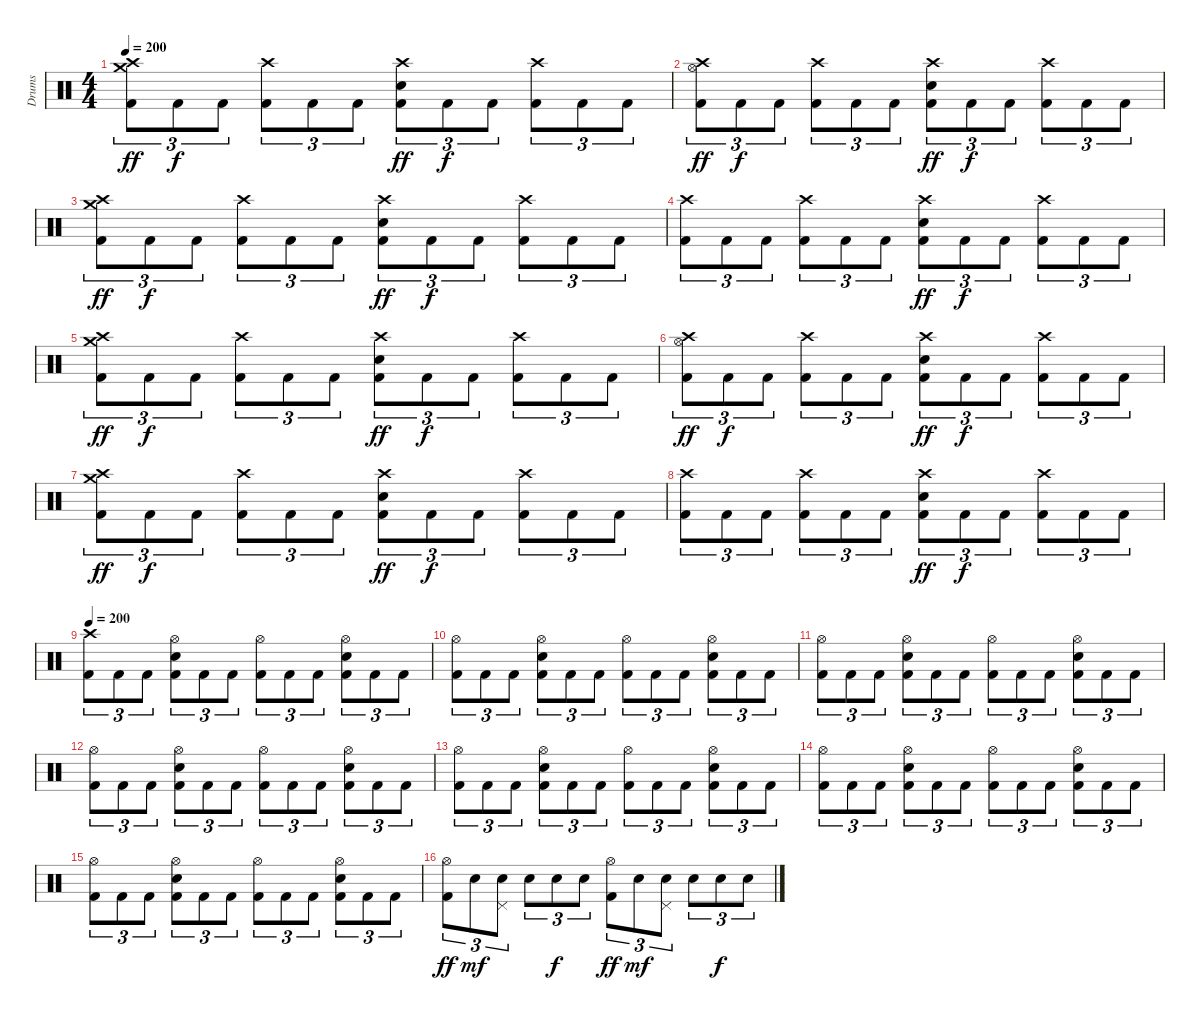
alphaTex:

\track ("Drums" "Drums") {instrument percussion}
\staff {score}
\articulation defaults
\ts (4 4)
\tempo 200
\clef neutral
\ks c
("Crash high (hit)" "Crash medium (hit)" "Kick (hit) 2").8{tu (3 2) dy ff} "Kick (hit) 2".8{tu (3 2) dy f} "Kick (hit) 2".8{tu (3 2)} ("Crash high (hit)" "Kick (hit) 2").8{tu (3 2)} "Kick (hit) 2".8{tu (3 2)} "Kick (hit) 2".8{tu (3 2)} ("Crash high (hit)" "Electric Snare (hit)" "Kick (hit) 2").8{tu (3 2) dy ff} "Kick (hit) 2".8{tu (3 2) dy f} "Kick (hit) 2".8{tu (3 2)} ("Crash high (hit)" "Kick (hit) 2").8{tu (3 2)} "Kick (hit) 2".8{tu (3 2)} "Kick (hit) 2".8{tu (3 2)} |
("Crash high (hit)" "Hi-Hat (open)" "Kick (hit) 2").8{tu (3 2) dy ff} "Kick (hit) 2".8{tu (3 2) dy f} "Kick (hit) 2".8{tu (3 2)} ("Crash high (hit)" "Kick (hit) 2").8{tu (3 2)} "Kick (hit) 2".8{tu (3 2)} "Kick (hit) 2".8{tu (3 2)} ("Crash high (hit)" "Electric Snare (hit)" "Kick (hit) 2").8{tu (3 2) dy ff} "Kick (hit) 2".8{tu (3 2) dy f} "Kick (hit) 2".8{tu (3 2)} ("Crash high (hit)" "Kick (hit) 2").8{tu (3 2)} "Kick (hit) 2".8{tu (3 2)} "Kick (hit) 2".8{tu (3 2)} |
("Crash high (hit)" "Crash medium (hit)" "Kick (hit) 2").8{tu (3 2) dy ff} "Kick (hit) 2".8{tu (3 2) dy f} "Kick (hit) 2".8{tu (3 2)} ("Crash high (hit)" "Kick (hit) 2").8{tu (3 2)} "Kick (hit) 2".8{tu (3 2)} "Kick (hit) 2".8{tu (3 2)} ("Crash high (hit)" "Electric Snare (hit)" "Kick (hit) 2").8{tu (3 2) dy ff} "Kick (hit) 2".8{tu (3 2) dy f} "Kick (hit) 2".8{tu (3 2)} ("Crash high (hit)" "Kick (hit) 2").8{tu (3 2)} "Kick (hit) 2".8{tu (3 2)} "Kick (hit) 2".8{tu (3 2)} |
("Crash high (hit)" "Kick (hit) 2").8{tu (3 2)} "Kick (hit) 2".8{tu (3 2)} "Kick (hit) 2".8{tu (3 2)} ("Crash high (hit)" "Kick (hit) 2").8{tu (3 2)} "Kick (hit) 2".8{tu (3 2)} "Kick (hit) 2".8{tu (3 2)} ("Crash high (hit)" "Electric Snare (hit)" "Kick (hit) 2").8{tu (3 2) dy ff} "Kick (hit) 2".8{tu (3 2) dy f} "Kick (hit) 2".8{tu (3 2)} ("Crash high (hit)" "Kick (hit) 2").8{tu (3 2)} "Kick (hit) 2".8{tu (3 2)} "Kick (hit) 2".8{tu (3 2)} |
("Crash high (hit)" "Crash medium (hit)" "Kick (hit) 2").8{tu (3 2) dy ff} "Kick (hit) 2".8{tu (3 2) dy f} "Kick (hit) 2".8{tu (3 2)} ("Crash high (hit)" "Kick (hit) 2").8{tu (3 2)} "Kick (hit) 2".8{tu (3 2)} "Kick (hit) 2".8{tu (3 2)} ("Crash high (hit)" "Electric Snare (hit)" "Kick (hit) 2").8{tu (3 2) dy ff} "Kick (hit) 2".8{tu (3 2) dy f} "Kick (hit) 2".8{tu (3 2)} ("Crash high (hit)" "Kick (hit) 2").8{tu (3 2)} "Kick (hit) 2".8{tu (3 2)} "Kick (hit) 2".8{tu (3 2)} |
("Crash high (hit)" "Hi-Hat (open)" "Kick (hit) 2").8{tu (3 2) dy ff} "Kick (hit) 2".8{tu (3 2) dy f} "Kick (hit) 2".8{tu (3 2)} ("Crash high (hit)" "Kick (hit) 2").8{tu (3 2)} "Kick (hit) 2".8{tu (3 2)} "Kick (hit) 2".8{tu (3 2)} ("Crash high (hit)" "Electric Snare (hit)" "Kick (hit) 2").8{tu (3 2) dy ff} "Kick (hit) 2".8{tu (3 2) dy f} "Kick (hit) 2".8{tu (3 2)} ("Crash high (hit)" "Kick (hit) 2").8{tu (3 2)} "Kick (hit) 2".8{tu (3 2)} "Kick (hit) 2".8{tu (3 2)} |
("Crash high (hit)" "Crash medium (hit)" "Kick (hit) 2").8{tu (3 2) dy ff} "Kick (hit) 2".8{tu (3 2) dy f} "Kick (hit) 2".8{tu (3 2)} ("Crash high (hit)" "Kick (hit) 2").8{tu (3 2)} "Kick (hit) 2".8{tu (3 2)} "Kick (hit) 2".8{tu (3 2)} ("Crash high (hit)" "Electric Snare (hit)" "Kick (hit) 2").8{tu (3 2) dy ff} "Kick (hit) 2".8{tu (3 2) dy f} "Kick (hit) 2".8{tu (3 2)} ("Crash high (hit)" "Kick (hit) 2").8{tu (3 2)} "Kick (hit) 2".8{tu (3 2)} "Kick (hit) 2".8{tu (3 2)} |
("Crash high (hit)" "Kick (hit) 2").8{tu (3 2)} "Kick (hit) 2".8{tu (3 2)} "Kick (hit) 2".8{tu (3 2)} ("Crash high (hit)" "Kick (hit) 2").8{tu (3 2)} "Kick (hit) 2".8{tu (3 2)} "Kick (hit) 2".8{tu (3 2)} ("Crash high (hit)" "Electric Snare (hit)" "Kick (hit) 2").8{tu (3 2) dy ff} "Kick (hit) 2".8{tu (3 2) dy f} "Kick (hit) 2".8{tu (3 2)} ("Crash high (hit)" "Kick (hit) 2").8{tu (3 2)} "Kick (hit) 2".8{tu (3 2)} "Kick (hit) 2".8{tu (3 2)} |
\tempo 200
("Crash high (hit)" "Kick (hit) 2").8{tu (3 2)} "Kick (hit) 2".8{tu (3 2)} "Kick (hit) 2".8{tu (3 2)} ("Hi-Hat (open)" "Electric Snare (hit)" "Kick (hit) 2").8{tu (3 2)} "Kick (hit) 2".8{tu (3 2)} "Kick (hit) 2".8{tu (3 2)} ("Hi-Hat (open)" "Kick (hit) 2").8{tu (3 2)} "Kick (hit) 2".8{tu (3 2)} "Kick (hit) 2".8{tu (3 2)} ("Hi-Hat (open)" "Electric Snare (hit)" "Kick (hit) 2").8{tu (3 2)} "Kick (hit) 2".8{tu (3 2)} "Kick (hit) 2".8{tu (3 2)} |
("Hi-Hat (open)" "Kick (hit) 2").8{tu (3 2)} "Kick (hit) 2".8{tu (3 2)} "Kick (hit) 2".8{tu (3 2)} ("Hi-Hat (open)" "Electric Snare (hit)" "Kick (hit) 2").8{tu (3 2)} "Kick (hit) 2".8{tu (3 2)} "Kick (hit) 2".8{tu (3 2)} ("Hi-Hat (open)" "Kick (hit) 2").8{tu (3 2)} "Kick (hit) 2".8{tu (3 2)} "Kick (hit) 2".8{tu (3 2)} ("Hi-Hat (open)" "Electric Snare (hit)" "Kick (hit) 2").8{tu (3 2)} "Kick (hit) 2".8{tu (3 2)} "Kick (hit) 2".8{tu (3 2)} |
("Hi-Hat (open)" "Kick (hit) 2").8{tu (3 2)} "Kick (hit) 2".8{tu (3 2)} "Kick (hit) 2".8{tu (3 2)} ("Hi-Hat (open)" "Electric Snare (hit)" "Kick (hit) 2").8{tu (3 2)} "Kick (hit) 2".8{tu (3 2)} "Kick (hit) 2".8{tu (3 2)} ("Hi-Hat (open)" "Kick (hit) 2").8{tu (3 2)} "Kick (hit) 2".8{tu (3 2)} "Kick (hit) 2".8{tu (3 2)} ("Hi-Hat (open)" "Electric Snare (hit)" "Kick (hit) 2").8{tu (3 2)} "Kick (hit) 2".8{tu (3 2)} "Kick (hit) 2".8{tu (3 2)} |
("Hi-Hat (open)" "Kick (hit) 2").8{tu (3 2)} "Kick (hit) 2".8{tu (3 2)} "Kick (hit) 2".8{tu (3 2)} ("Hi-Hat (open)" "Electric Snare (hit)" "Kick (hit) 2").8{tu (3 2)} "Kick (hit) 2".8{tu (3 2)} "Kick (hit) 2".8{tu (3 2)} ("Hi-Hat (open)" "Kick (hit) 2").8{tu (3 2)} "Kick (hit) 2".8{tu (3 2)} "Kick (hit) 2".8{tu (3 2)} ("Hi-Hat (open)" "Electric Snare (hit)" "Kick (hit) 2").8{tu (3 2)} "Kick (hit) 2".8{tu (3 2)} "Kick (hit) 2".8{tu (3 2)} |
("Hi-Hat (open)" "Kick (hit) 2").8{tu (3 2)} "Kick (hit) 2".8{tu (3 2)} "Kick (hit) 2".8{tu (3 2)} ("Hi-Hat (open)" "Electric Snare (hit)" "Kick (hit) 2").8{tu (3 2)} "Kick (hit) 2".8{tu (3 2)} "Kick (hit) 2".8{tu (3 2)} ("Hi-Hat (open)" "Kick (hit) 2").8{tu (3 2)} "Kick (hit) 2".8{tu (3 2)} "Kick (hit) 2".8{tu (3 2)} ("Hi-Hat (open)" "Electric Snare (hit)" "Kick (hit) 2").8{tu (3 2)} "Kick (hit) 2".8{tu (3 2)} "Kick (hit) 2".8{tu (3 2)} |
("Hi-Hat (open)" "Kick (hit) 2").8{tu (3 2)} "Kick (hit) 2".8{tu (3 2)} "Kick (hit) 2".8{tu (3 2)} ("Hi-Hat (open)" "Electric Snare (hit)" "Kick (hit) 2").8{tu (3 2)} "Kick (hit) 2".8{tu (3 2)} "Kick (hit) 2".8{tu (3 2)} ("Hi-Hat (open)" "Kick (hit) 2").8{tu (3 2)} "Kick (hit) 2".8{tu (3 2)} "Kick (hit) 2".8{tu (3 2)} ("Hi-Hat (open)" "Electric Snare (hit)" "Kick (hit) 2").8{tu (3 2)} "Kick (hit) 2".8{tu (3 2)} "Kick (hit) 2".8{tu (3 2)} |
("Hi-Hat (open)" "Kick (hit) 2").8{tu (3 2)} "Kick (hit) 2".8{tu (3 2)} "Kick (hit) 2".8{tu (3 2)} ("Hi-Hat (open)" "Electric Snare (hit)" "Kick (hit) 2").8{tu (3 2)} "Kick (hit) 2".8{tu (3 2)} "Kick (hit) 2".8{tu (3 2)} ("Hi-Hat (open)" "Kick (hit) 2").8{tu (3 2)} "Kick (hit) 2".8{tu (3 2)} "Kick (hit) 2".8{tu (3 2)} ("Hi-Hat (open)" "Electric Snare (hit)" "Kick (hit) 2").8{tu (3 2)} "Kick (hit) 2".8{tu (3 2)} "Kick (hit) 2".8{tu (3 2)} |
("Hi-Hat (open)" "Kick (hit) 2").8{tu (3 2) dy ff} "Electric Snare (hit)".8{tu (3 2) dy mf} ("Pedal Hi-Hat (hit)" "Electric Snare (hit)").8{tu (3 2)} "Electric Snare (hit)".8{tu (3 2)} "Electric Snare (hit)".8{tu (3 2) dy f} "Electric Snare (hit)".8{tu (3 2)} ("Hi-Hat (open)" "Kick (hit) 2").8{tu (3 2) dy ff} "Electric Snare (hit)".8{tu (3 2) dy mf} ("Pedal Hi-Hat (hit)" "Electric Snare (hit)").8{tu (3 2)} "Electric Snare (hit)".8{tu (3 2)} "Electric Snare (hit)".8{tu (3 2) dy f} "Electric Snare (hit)".8{tu (3 2)}
